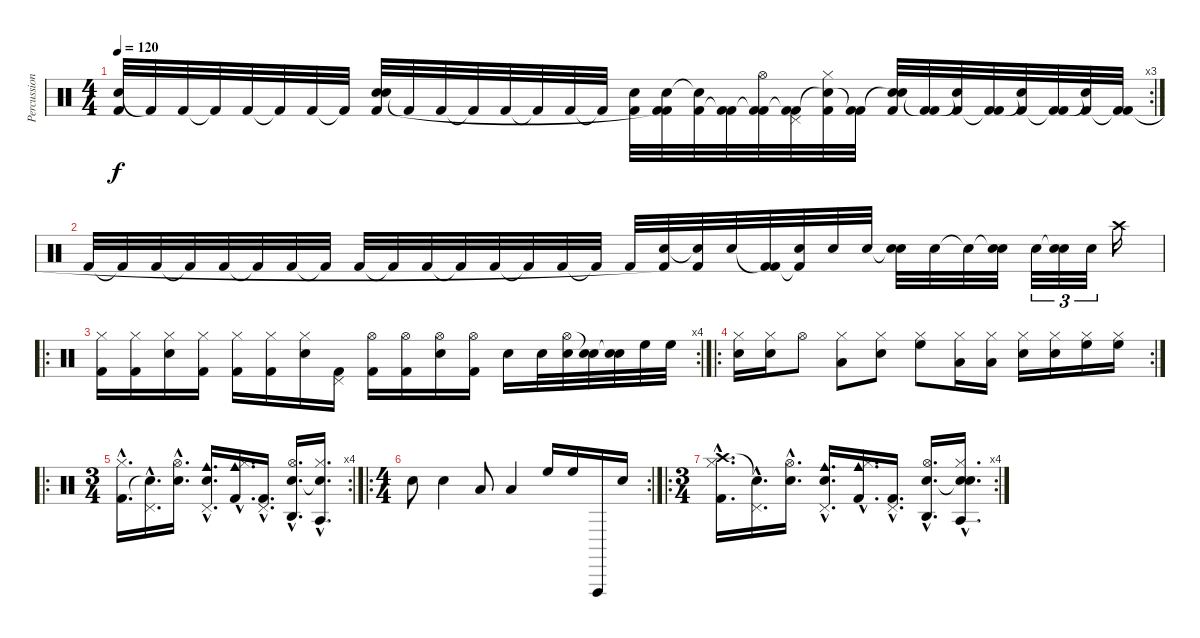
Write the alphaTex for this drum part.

\track ("Percussion" "Percussion") {instrument percussion}
\staff {score}
\articulation defaults
\rc 3
\ts (4 4)
\tempo 120
\clef neutral
\ks c
("Electric Snare (hit)" "Kick (hit) 2").32{dy f} "Kick (hit) 2"{t}.32 "Kick (hit) 2".32 "Kick (hit) 2"{t}.32 "Kick (hit) 2".32 "Kick (hit) 2"{t}.32 "Kick (hit) 2".32 "Kick (hit) 2"{t}.32 ("Electric Snare (hit)" "Electric Snare (hit)" "Kick (hit) 2").32 "Kick (hit) 2"{t}.32 "Kick (hit) 2".32 "Kick (hit) 2"{t}.32 "Kick (hit) 2".32 "Kick (hit) 2"{t}.32 "Kick (hit) 2".32 "Kick (hit) 2"{t}.32 ("Electric Snare (hit)" "Kick (hit) 2").32 ("Electric Snare (hit)" "Kick (hit) 2" "Kick (hit) 2"{t}).32 ("Snare (hit)"{t} "Kick (hit) 2").32 ("Kick (hit) 2" "Kick (hit) 2"{t}).32 ("Hi-Hat (open)" "Kick (hit) 2"{t} "Kick (hit) 2").32 ("Pedal Hi-Hat (hit)" "Kick (hit) 2" "Kick (hit) 2"{t}).32 ("Hi-Hat (closed)" "Snare (hit)"{t} "Kick (hit) 2").32 ("Kick (hit) 2" "Kick (hit) 2"{t}).32 ("Electric Snare (hit)" "Snare (hit)"{t} "Kick (hit) 2").32 ("Kick (hit) 2" "Kick (hit) 2"{t}).32 ("Snare (hit)"{t} "Kick (hit) 2").32 ("Kick (hit) 2" "Kick (hit) 2"{t}).32 ("Snare (hit)"{t} "Kick (hit) 2").32 ("Kick (hit) 2" "Kick (hit) 2"{t}).32 ("Snare (hit)"{t} "Kick (hit) 2").32 ("Kick (hit) 2" "Kick (hit) 2"{t}).32 |
"Kick (hit) 2".32 "Kick (hit) 2"{t}.32 "Kick (hit) 2".32 "Kick (hit) 2"{t}.32 "Kick (hit) 2".32 "Kick (hit) 2"{t}.32 "Kick (hit) 2".32 "Kick (hit) 2"{t}.32 "Kick (hit) 2".32 "Kick (hit) 2"{t}.32 "Kick (hit) 2".32 "Kick (hit) 2"{t}.32 "Kick (hit) 2".32 "Kick (hit) 2"{t}.32 "Kick (hit) 2".32 "Kick (hit) 2"{t}.32 "Kick (hit) 2".32 ("Snare (hit) 2" "Kick (hit) 2"{t}).32 ("Snare (hit)"{t} "Kick (hit) 2").32 "Snare (hit) 2".32 ("Kick (hit) 2"{t} "Kick (hit) 2").32 ("Snare (hit) 2" "Kick (hit) 2"{t}).32 "Snare (hit) 2".32 "Snare (hit) 2".32 ("Snare (hit)"{t} "Snare (hit) 2").32 "Snare (hit) 2".32 "Snare (hit)"{t}.32 ("Snare (hit)"{t} "Snare (hit) 2").32 "Snare (hit) 2".32{tu (3 2)} ("Snare (hit)"{t} "Snare (hit) 2").32{tu (3 2)} "Snare (hit) 2".32{tu (3 2)} "Crash high (hit)".16 |
\ro
\rc 4
("Hi-Hat (closed)" "Kick (hit) 2").16 ("Hi-Hat (closed)" "Kick (hit) 2").16 ("Hi-Hat (closed)" "Snare (hit) 2").16 ("Hi-Hat (closed)" "Kick (hit) 2").16 ("Hi-Hat (closed)" "Kick (hit) 2").16 ("Hi-Hat (closed)" "Kick (hit) 2").16 ("Hi-Hat (closed)" "Snare (hit) 2").16 ("Pedal Hi-Hat (hit)" "Kick (hit) 2").16 ("Hi-Hat (open)" "Kick (hit) 2").16 ("Hi-Hat (open)" "Kick (hit) 2").16 ("Hi-Hat (open)" "Snare (hit) 2").16 ("Hi-Hat (open)" "Kick (hit) 2").16 "Snare (hit) 2".16 "Snare (hit) 2".32 ("Hi-Hat (open)" "Snare (hit) 2").32 ("Snare (hit)"{t} "Snare (hit) 2").32 ("Snare (hit)"{t} "Snare (hit) 2").32 "High Floor Tom (hit)".32 "High Floor Tom (hit)".32 |
\ro
\rc 2
("Hi-Hat (closed)" "Snare (hit) 2").16 ("Hi-Hat (closed)" "Snare (hit) 2").16 "Hi-Hat (open)".8 ("Hi-Hat (closed)" "Low Tom (hit)").8 ("Hi-Hat (closed)" "Snare (hit) 2").8 ("Hi-Hat (closed)" "High Floor Tom (hit)").8 ("Hi-Hat (closed)" "Low Tom (hit)").16 ("Hi-Hat (closed)" "Low Tom (hit)").16 ("Hi-Hat (closed)" "Snare (hit) 2").16 ("Hi-Hat (closed)" "Snare (hit) 2").16 ("Hi-Hat (closed)" "High Floor Tom (hit)").16 ("Hi-Hat (closed)" "High Floor Tom (hit)").16 |
\ro
\rc 4
\ts (3 4)
("Hi-Hat (closed)"{hac} "Kick (hit) 2"{hac}).16{d} ("Pedal Hi-Hat (hit)"{hac} "Snare (hit)"{hac t}).16{d} ("Hi-Hat (open)"{hac} "Snare (hit) 2"{hac}).16{d} ("Pedal Hi-Hat (hit)"{hac} "Cowbell medium (hit)"{hac} "Snare (hit) 2"{hac}).16{d} ("Hi-Hat (closed)"{hac} "Cowbell medium (hit)"{hac} "Kick (hit) 2"{hac}).16{d} ("Pedal Hi-Hat (hit)"{hac} "Kick (hit) 2"{hac}).16{d} ("Hi-Hat (open)"{hac} "Agogo high (hit)"{hac} "Snare (hit) 2"{hac}).16{d} ("Hi-Hat (closed)"{hac} "Agogo tow (hit)"{hac} "Snare (hit)"{hac t}).16{d} |
\ro
\rc 2
\ts (4 4)
"Snare (hit) 2".8 "Snare (hit) 2".4 "Low Tom (hit)".8 "Low Tom (hit)".4 "High Floor Tom (hit)".16 "High Floor Tom (hit)".16 "Vibraslap (hit)".16 "Snare (hit) 2".16 |
\ro
\rc 4
\ts (3 4)
("Hi-Hat (closed)"{hac} "Crash high (hit)"{hac} "Kick (hit) 2"{hac}).16{d} ("Pedal Hi-Hat (hit)"{hac} "Snare (hit)"{hac t}).16{d} ("Hi-Hat (open)"{hac} "Snare (hit) 2"{hac}).16{d} ("Pedal Hi-Hat (hit)"{hac} "Cowbell medium (hit)"{hac} "Snare (hit) 2"{hac}).16{d} ("Hi-Hat (closed)"{hac} "Cowbell medium (hit)"{hac} "Kick (hit) 2"{hac}).16{d} ("Pedal Hi-Hat (hit)"{hac} "Kick (hit) 2"{hac}).16{d} ("Hi-Hat (open)"{hac} "Agogo high (hit)"{hac} "Snare (hit) 2"{hac}).16{d} ("Hi-Hat (closed)"{hac} "Agogo tow (hit)"{hac} "Snare (hit)"{hac t} "Snare (hit)"{hac}).16{d}
